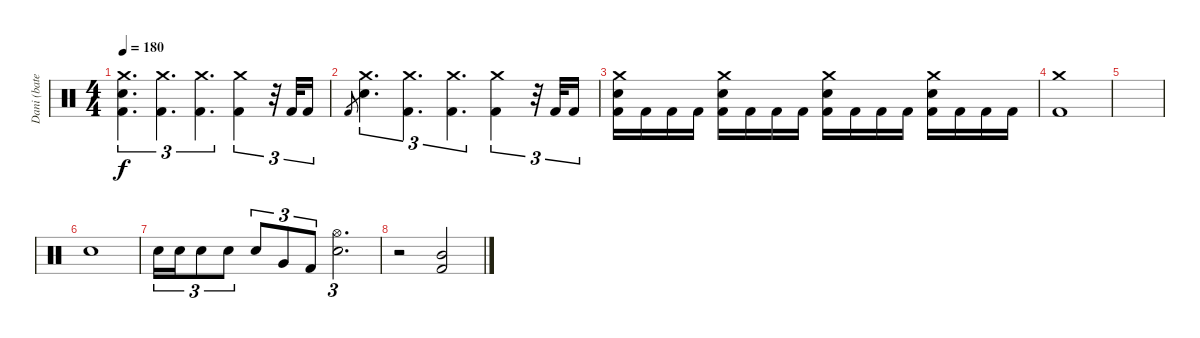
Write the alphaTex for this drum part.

\track ("Dani (bateria)" "Dani (bate") {instrument percussion}
\staff {score}
\articulation defaults
\ts (4 4)
\tempo 180
\clef neutral
\ks c
("Crash medium (hit)" "Electric Snare (hit)" "Kick (hit) 2").4{d tu (3 2) dy f} ("Crash medium (hit)" "Kick (hit) 2").4{d tu (3 2)} ("Crash medium (hit)" "Kick (hit) 2").4{d tu (3 2)} ("Crash medium (hit)" "Kick (hit) 2").4{tu (3 2)} r.32{tu (3 2)} "Kick (hit) 2".32{tu (3 2)} "Kick (hit) 2".16{tu (3 2)} |
"Kick (hit) 2".8{gr} ("Crash medium (hit)" "Electric Snare (hit)").4{d tu (3 2)} ("Crash medium (hit)" "Kick (hit) 2").4{d tu (3 2)} ("Crash medium (hit)" "Kick (hit) 2").4{d tu (3 2)} ("Crash medium (hit)" "Kick (hit) 2").4{tu (3 2)} r.32{tu (3 2)} "Kick (hit) 2".32{tu (3 2)} "Kick (hit) 2".16{tu (3 2)} |
("Crash medium (hit)" "Electric Snare (hit)" "Kick (hit) 2").16 "Kick (hit) 2".16 "Kick (hit) 2".16 "Kick (hit) 2".16 ("Crash medium (hit)" "Electric Snare (hit)" "Kick (hit) 2").16 "Kick (hit) 2".16 "Kick (hit) 2".16 "Kick (hit) 2".16 ("Crash medium (hit)" "Electric Snare (hit)" "Kick (hit) 2").16 "Kick (hit) 2".16 "Kick (hit) 2".16 "Kick (hit) 2".16 ("Crash medium (hit)" "Electric Snare (hit)" "Kick (hit) 2").16 "Kick (hit) 2".16 "Kick (hit) 2".16 "Kick (hit) 2".16 |
("Crash medium (hit)" "Kick (hit) 2").1 |
|
"Electric Snare (hit)".1 |
"Electric Snare (hit)".16{tu (3 2)} "Electric Snare (hit)".16{tu (3 2)} "Electric Snare (hit)".8{tu (3 2)} "Electric Snare (hit)".8{tu (3 2)} "Electric Snare (hit)".8{tu (3 2)} "Very Low Tom (hit)".8{tu (3 2)} "Kick (hit) 2".8{tu (3 2)} ("Hi-Hat (open)" "Electric Snare (hit)").2{d tu (3 2)} |
r.2 ("Mid Tom (hit)" "Kick (hit) 2").2
